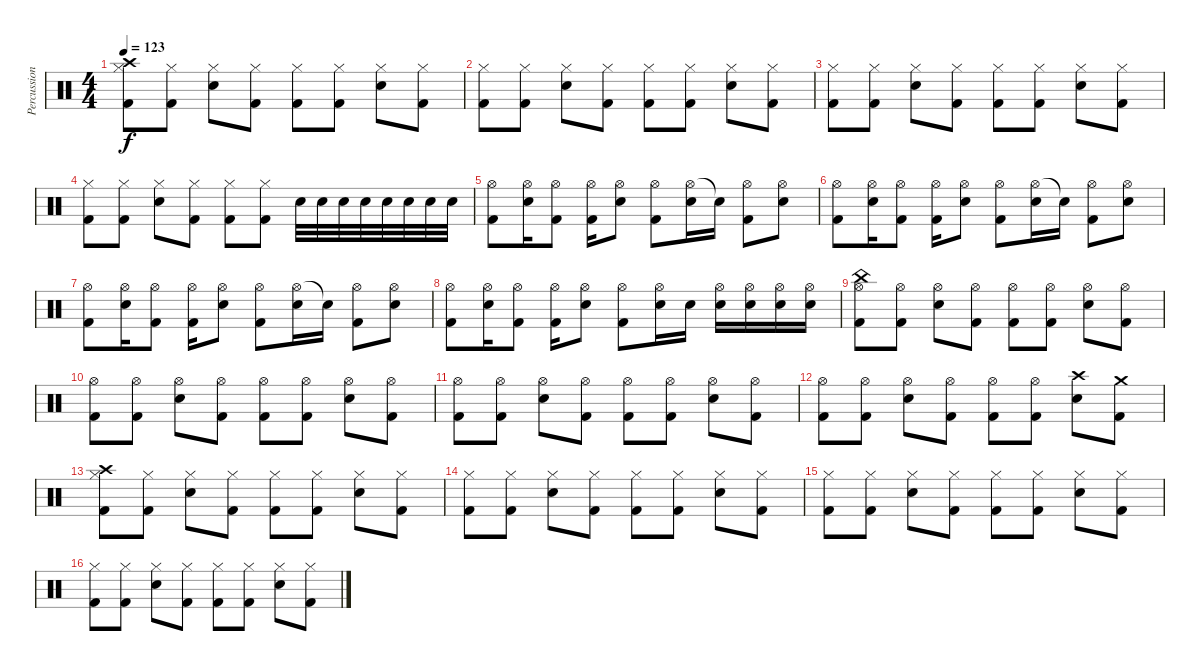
\track ("Percussion" "Percussion") {instrument percussion}
\staff {score}
\articulation defaults
\ts (4 4)
\tempo 123
\clef neutral
\ks c
("Crash high (hit)" "Kick (hit) 2" "Hi-Hat (closed)").8{dy f} ("Kick (hit) 2" "Hi-Hat (closed)").8 ("Electric Snare (hit)" "Hi-Hat (closed)").8 ("Kick (hit) 2" "Hi-Hat (closed)").8 ("Kick (hit) 2" "Hi-Hat (closed)").8 ("Kick (hit) 2" "Hi-Hat (closed)").8 ("Electric Snare (hit)" "Hi-Hat (closed)").8 ("Kick (hit) 2" "Hi-Hat (closed)").8 |
("Kick (hit) 2" "Hi-Hat (closed)").8 ("Kick (hit) 2" "Hi-Hat (closed)").8 ("Electric Snare (hit)" "Hi-Hat (closed)").8 ("Kick (hit) 2" "Hi-Hat (closed)").8 ("Kick (hit) 2" "Hi-Hat (closed)").8 ("Kick (hit) 2" "Hi-Hat (closed)").8 ("Electric Snare (hit)" "Hi-Hat (closed)").8 ("Kick (hit) 2" "Hi-Hat (closed)").8 |
("Kick (hit) 2" "Hi-Hat (closed)").8 ("Kick (hit) 2" "Hi-Hat (closed)").8 ("Electric Snare (hit)" "Hi-Hat (closed)").8 ("Kick (hit) 2" "Hi-Hat (closed)").8 ("Kick (hit) 2" "Hi-Hat (closed)").8 ("Kick (hit) 2" "Hi-Hat (closed)").8 ("Electric Snare (hit)" "Hi-Hat (closed)").8 ("Kick (hit) 2" "Hi-Hat (closed)").8 |
("Kick (hit) 2" "Hi-Hat (closed)").8 ("Kick (hit) 2" "Hi-Hat (closed)").8 ("Electric Snare (hit)" "Hi-Hat (closed)").8 ("Kick (hit) 2" "Hi-Hat (closed)").8 ("Kick (hit) 2" "Hi-Hat (closed)").8 ("Kick (hit) 2" "Hi-Hat (closed)").8 "Electric Snare (hit)".32 "Electric Snare (hit)".32 "Electric Snare (hit)".32 "Electric Snare (hit)".32 "Electric Snare (hit)".32 "Electric Snare (hit)".32 "Electric Snare (hit)".32 "Electric Snare (hit)".32 |
("Hi-Hat (open)" "Kick (hit) 2").8 ("Hi-Hat (open)" "Electric Snare (hit)").16 ("Hi-Hat (open)" "Kick (hit) 2").8 ("Hi-Hat (open)" "Kick (hit) 2").16 ("Hi-Hat (open)" "Electric Snare (hit)").8 ("Hi-Hat (open)" "Kick (hit) 2").8 ("Hi-Hat (open)" "Electric Snare (hit)").16 "Snare (hit)"{t}.16 ("Hi-Hat (open)" "Kick (hit) 2").8 ("Hi-Hat (open)" "Electric Snare (hit)").8 |
("Hi-Hat (open)" "Kick (hit) 2").8 ("Hi-Hat (open)" "Electric Snare (hit)").16 ("Hi-Hat (open)" "Kick (hit) 2").8 ("Hi-Hat (open)" "Kick (hit) 2").16 ("Hi-Hat (open)" "Electric Snare (hit)").8 ("Hi-Hat (open)" "Kick (hit) 2").8 ("Hi-Hat (open)" "Electric Snare (hit)").16 "Snare (hit)"{t}.16 ("Hi-Hat (open)" "Kick (hit) 2").8 ("Hi-Hat (open)" "Electric Snare (hit)").8 |
("Hi-Hat (open)" "Kick (hit) 2").8 ("Hi-Hat (open)" "Electric Snare (hit)").16 ("Hi-Hat (open)" "Kick (hit) 2").8 ("Hi-Hat (open)" "Kick (hit) 2").16 ("Hi-Hat (open)" "Electric Snare (hit)").8 ("Hi-Hat (open)" "Kick (hit) 2").8 ("Hi-Hat (open)" "Electric Snare (hit)").16 "Snare (hit)"{t}.16 ("Hi-Hat (open)" "Kick (hit) 2").8 ("Hi-Hat (open)" "Electric Snare (hit)").8 |
("Hi-Hat (open)" "Kick (hit) 2").8 ("Hi-Hat (open)" "Electric Snare (hit)").16 ("Hi-Hat (open)" "Kick (hit) 2").8 ("Hi-Hat (open)" "Kick (hit) 2").16 ("Hi-Hat (open)" "Electric Snare (hit)").8 ("Hi-Hat (open)" "Kick (hit) 2").8 ("Hi-Hat (open)" "Electric Snare (hit)").16 "Electric Snare (hit)".16 ("Hi-Hat (open)" "Electric Snare (hit)").16 ("Hi-Hat (open)" "Electric Snare (hit)").16 ("Hi-Hat (open)" "Electric Snare (hit)").16 ("Hi-Hat (open)" "Electric Snare (hit)").16 |
("Hi-Hat (open)" "China (hit)" "Kick (hit) 2").8 ("Hi-Hat (open)" "Kick (hit) 2").8 ("Hi-Hat (open)" "Electric Snare (hit)").8 ("Hi-Hat (open)" "Kick (hit) 2").8 ("Hi-Hat (open)" "Kick (hit) 2").8 ("Hi-Hat (open)" "Kick (hit) 2").8 ("Hi-Hat (open)" "Electric Snare (hit)").8 ("Hi-Hat (open)" "Kick (hit) 2").8 |
("Hi-Hat (open)" "Kick (hit) 2").8 ("Hi-Hat (open)" "Kick (hit) 2").8 ("Hi-Hat (open)" "Electric Snare (hit)").8 ("Hi-Hat (open)" "Kick (hit) 2").8 ("Hi-Hat (open)" "Kick (hit) 2").8 ("Hi-Hat (open)" "Kick (hit) 2").8 ("Hi-Hat (open)" "Electric Snare (hit)").8 ("Hi-Hat (open)" "Kick (hit) 2").8 |
("Hi-Hat (open)" "Kick (hit) 2").8 ("Hi-Hat (open)" "Kick (hit) 2").8 ("Hi-Hat (open)" "Electric Snare (hit)").8 ("Hi-Hat (open)" "Kick (hit) 2").8 ("Hi-Hat (open)" "Kick (hit) 2").8 ("Hi-Hat (open)" "Kick (hit) 2").8 ("Hi-Hat (open)" "Electric Snare (hit)").8 ("Hi-Hat (open)" "Kick (hit) 2").8 |
("Hi-Hat (open)" "Kick (hit) 2").8 ("Hi-Hat (open)" "Kick (hit) 2").8 ("Hi-Hat (open)" "Electric Snare (hit)").8 ("Hi-Hat (open)" "Kick (hit) 2").8 ("Hi-Hat (open)" "Kick (hit) 2").8 ("Hi-Hat (open)" "Kick (hit) 2").8 ("Crash high (hit)" "Electric Snare (hit)").8 ("Crash medium (hit)" "Kick (hit) 2").8 |
("Crash high (hit)" "Kick (hit) 2" "Hi-Hat (closed)").8 ("Kick (hit) 2" "Hi-Hat (closed)").8 ("Electric Snare (hit)" "Hi-Hat (closed)").8 ("Kick (hit) 2" "Hi-Hat (closed)").8 ("Kick (hit) 2" "Hi-Hat (closed)").8 ("Kick (hit) 2" "Hi-Hat (closed)").8 ("Electric Snare (hit)" "Hi-Hat (closed)").8 ("Kick (hit) 2" "Hi-Hat (closed)").8 |
("Kick (hit) 2" "Hi-Hat (closed)").8 ("Kick (hit) 2" "Hi-Hat (closed)").8 ("Electric Snare (hit)" "Hi-Hat (closed)").8 ("Kick (hit) 2" "Hi-Hat (closed)").8 ("Kick (hit) 2" "Hi-Hat (closed)").8 ("Kick (hit) 2" "Hi-Hat (closed)").8 ("Electric Snare (hit)" "Hi-Hat (closed)").8 ("Kick (hit) 2" "Hi-Hat (closed)").8 |
("Kick (hit) 2" "Hi-Hat (closed)").8 ("Kick (hit) 2" "Hi-Hat (closed)").8 ("Electric Snare (hit)" "Hi-Hat (closed)").8 ("Kick (hit) 2" "Hi-Hat (closed)").8 ("Kick (hit) 2" "Hi-Hat (closed)").8 ("Kick (hit) 2" "Hi-Hat (closed)").8 ("Electric Snare (hit)" "Hi-Hat (closed)").8 ("Kick (hit) 2" "Hi-Hat (closed)").8 |
("Kick (hit) 2" "Hi-Hat (closed)").8 ("Kick (hit) 2" "Hi-Hat (closed)").8 ("Electric Snare (hit)" "Hi-Hat (closed)").8 ("Kick (hit) 2" "Hi-Hat (closed)").8 ("Kick (hit) 2" "Hi-Hat (closed)").8 ("Kick (hit) 2" "Hi-Hat (closed)").8 ("Electric Snare (hit)" "Hi-Hat (closed)").8 ("Kick (hit) 2" "Hi-Hat (closed)").8
